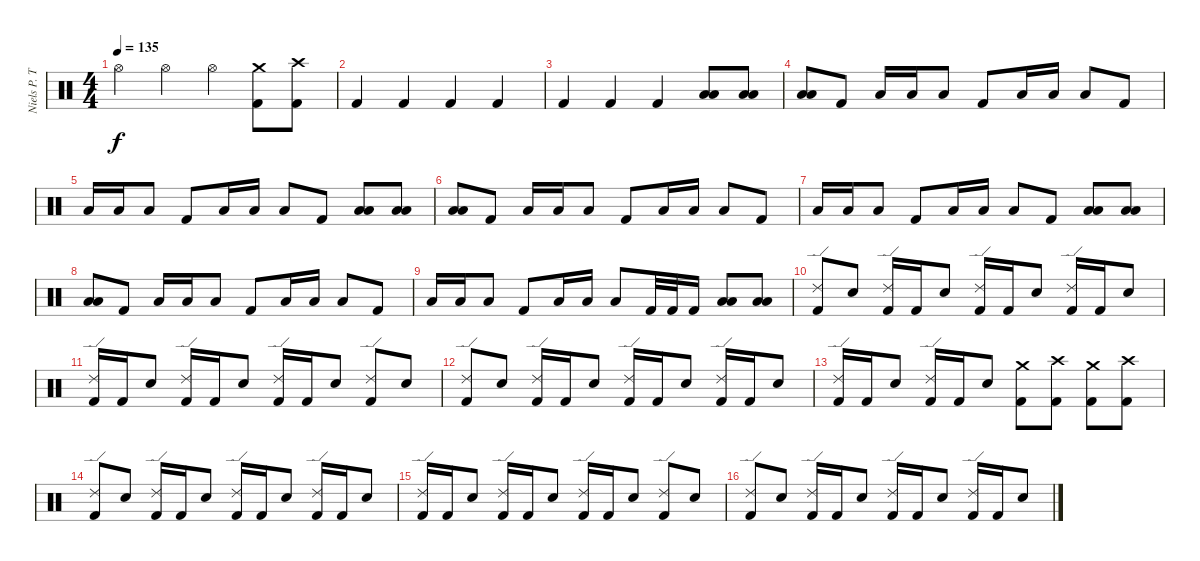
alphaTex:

\track ("Niels P. Thogersen" "Niels P. T") {instrument percussion}
\staff {score}
\articulation defaults
\ts (4 4)
\tempo 135
\clef neutral
\ks c "Hi-Hat (open)".4{dy f} "Hi-Hat (open)".4 "Hi-Hat (open)".4
("Crash medium (hit)" "Kick (hit) 2").8 ("Crash high (hit)" "Kick (hit) 2").8 |
"Kick (hit) 2".4 "Kick (hit) 2".4 "Kick (hit) 2".4 "Kick (hit) 2".4 |
"Kick (hit) 2".4 "Kick (hit) 2".4 "Kick (hit) 2".4 ("Low Tom (hit)" "Low Floor Tom (hit)").8 ("Low Tom (hit)" "Low Floor Tom (hit)").8 |
("Low Tom (hit)" "Low Floor Tom (hit)").8 "Kick (hit) 2".8 "Low Floor Tom (hit)".16 "Low Floor Tom (hit)".16 "Low Floor Tom (hit)".8 "Kick (hit) 2".8 "Low Floor Tom (hit)".16 "Low Floor Tom (hit)".16 "Low Floor Tom (hit)".8 "Kick (hit) 2".8 |
"Low Floor Tom (hit)".16 "Low Floor Tom (hit)".16 "Low Floor Tom (hit)".8 "Kick (hit) 2".8 "Low Floor Tom (hit)".16 "Low Floor Tom (hit)".16 "Low Floor Tom (hit)".8 "Kick (hit) 2".8 ("Low Tom (hit)" "Low Floor Tom (hit)").8 ("Low Tom (hit)" "Low Floor Tom (hit)").8 |
("Low Tom (hit)" "Low Floor Tom (hit)").8 "Kick (hit) 2".8 "Low Floor Tom (hit)".16 "Low Floor Tom (hit)".16 "Low Floor Tom (hit)".8 "Kick (hit) 2".8 "Low Floor Tom (hit)".16 "Low Floor Tom (hit)".16 "Low Floor Tom (hit)".8 "Kick (hit) 2".8 |
"Low Floor Tom (hit)".16 "Low Floor Tom (hit)".16 "Low Floor Tom (hit)".8 "Kick (hit) 2".8 "Low Floor Tom (hit)".16 "Low Floor Tom (hit)".16 "Low Floor Tom (hit)".8 "Kick (hit) 2".8 ("Low Tom (hit)" "Low Floor Tom (hit)").8 ("Low Tom (hit)" "Low Floor Tom (hit)").8 |
("Low Tom (hit)" "Low Floor Tom (hit)").8 "Kick (hit) 2".8 "Low Floor Tom (hit)".16 "Low Floor Tom (hit)".16 "Low Floor Tom (hit)".8 "Kick (hit) 2".8 "Low Floor Tom (hit)".16 "Low Floor Tom (hit)".16 "Low Floor Tom (hit)".8 "Kick (hit) 2".8 |
"Low Floor Tom (hit)".16 "Low Floor Tom (hit)".16 "Low Floor Tom (hit)".8 "Kick (hit) 2".8 "Low Floor Tom (hit)".16 "Low Floor Tom (hit)".16 "Low Floor Tom (hit)".8 "Kick (hit) 2".32 "Kick (hit) 2".32 "Kick (hit) 2".16 ("Low Tom (hit)" "Low Floor Tom (hit)").8 ("Low Tom (hit)" "Low Floor Tom (hit)").8 |
("Ride (edge) 2" "Kick (hit) 2").8 "Snare (hit) 2".8 ("Ride (edge) 2" "Kick (hit) 2").16 "Kick (hit) 2".16 "Snare (hit) 2".8 ("Ride (edge) 2" "Kick (hit) 2").16 "Kick (hit) 2".16 "Snare (hit) 2".8 ("Ride (edge) 2" "Kick (hit) 2").16 "Kick (hit) 2".16 "Snare (hit) 2".8 |
("Ride (edge) 2" "Kick (hit) 2").16 "Kick (hit) 2".16 "Snare (hit) 2".8 ("Ride (edge) 2" "Kick (hit) 2").16 "Kick (hit) 2".16 "Snare (hit) 2".8 ("Ride (edge) 2" "Kick (hit) 2").16 "Kick (hit) 2".16 "Snare (hit) 2".8 ("Ride (edge) 2" "Kick (hit) 2").8 "Snare (hit) 2".8 |
("Ride (edge) 2" "Kick (hit) 2").8 "Snare (hit) 2".8 ("Ride (edge) 2" "Kick (hit) 2").16 "Kick (hit) 2".16 "Snare (hit) 2".8 ("Ride (edge) 2" "Kick (hit) 2").16 "Kick (hit) 2".16 "Snare (hit) 2".8 ("Ride (edge) 2" "Kick (hit) 2").16 "Kick (hit) 2".16 "Snare (hit) 2".8 |
("Ride (edge) 2" "Kick (hit) 2").16 "Kick (hit) 2".16 "Snare (hit) 2".8 ("Ride (edge) 2" "Kick (hit) 2").16 "Kick (hit) 2".16 "Snare (hit) 2".8 ("Crash medium (hit)" "Kick (hit) 2").8 ("Crash high (hit)" "Kick (hit) 2").8 ("Crash medium (hit)" "Kick (hit) 2").8 ("Crash high (hit)" "Kick (hit) 2").8 |
("Ride (edge) 2" "Kick (hit) 2").8 "Snare (hit) 2".8 ("Ride (edge) 2" "Kick (hit) 2").16 "Kick (hit) 2".16 "Snare (hit) 2".8 ("Ride (edge) 2" "Kick (hit) 2").16 "Kick (hit) 2".16 "Snare (hit) 2".8 ("Ride (edge) 2" "Kick (hit) 2").16 "Kick (hit) 2".16 "Snare (hit) 2".8 |
("Ride (edge) 2" "Kick (hit) 2").16 "Kick (hit) 2".16 "Snare (hit) 2".8 ("Ride (edge) 2" "Kick (hit) 2").16 "Kick (hit) 2".16 "Snare (hit) 2".8 ("Ride (edge) 2" "Kick (hit) 2").16 "Kick (hit) 2".16 "Snare (hit) 2".8 ("Ride (edge) 2" "Kick (hit) 2").8 "Snare (hit) 2".8 |
("Ride (edge) 2" "Kick (hit) 2").8 "Snare (hit) 2".8 ("Ride (edge) 2" "Kick (hit) 2").16 "Kick (hit) 2".16 "Snare (hit) 2".8 ("Ride (edge) 2" "Kick (hit) 2").16 "Kick (hit) 2".16 "Snare (hit) 2".8 ("Ride (edge) 2" "Kick (hit) 2").16 "Kick (hit) 2".16 "Snare (hit) 2".8
